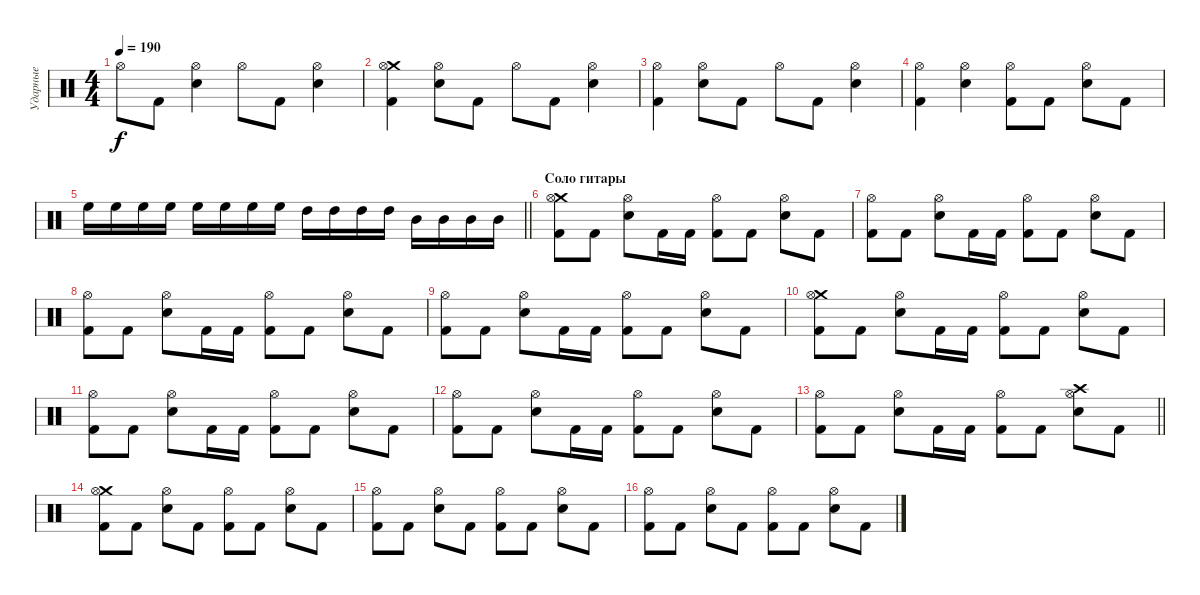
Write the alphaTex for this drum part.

\track ("Ударные" "Ударные") {instrument percussion}
\staff {score}
\articulation defaults
\ts (4 4)
\tempo 190
\clef neutral
\ks c "Hi-Hat (open)".8{dy f} "Kick (hit) 2".8
("Electric Snare (hit)" "Hi-Hat (open)").4 "Hi-Hat (open)".8 "Kick (hit) 2".8 ("Electric Snare (hit)" "Hi-Hat (open)").4 |
("Crash medium (hit)" "Kick (hit) 2" "Hi-Hat (open)").4 ("Electric Snare (hit)" "Hi-Hat (open)").8 "Kick (hit) 2".8 "Hi-Hat (open)".8 "Kick (hit) 2".8 ("Electric Snare (hit)" "Hi-Hat (open)").4 |
("Kick (hit) 2" "Hi-Hat (open)").4 ("Electric Snare (hit)" "Hi-Hat (open)").8 "Kick (hit) 2".8 "Hi-Hat (open)".8 "Kick (hit) 2".8 ("Electric Snare (hit)" "Hi-Hat (open)").4 |
("Kick (hit) 2" "Hi-Hat (open)").4 ("Electric Snare (hit)" "Hi-Hat (open)").4 ("Kick (hit) 2" "Hi-Hat (open)").8 "Kick (hit) 2".8 ("Electric Snare (hit)" "Hi-Hat (open)").8 "Kick (hit) 2".8 |
\barLineRight lightlight "High Floor Tom (hit)".16 "High Floor Tom (hit)".16 "High Floor Tom (hit)".16 "High Floor Tom (hit)".16 "High Floor Tom (hit)".16 "High Floor Tom (hit)".16 "High Floor Tom (hit)".16 "High Floor Tom (hit)".16 "High Tom (hit)".16 "High Tom (hit)".16 "High Tom (hit)".16 "High Tom (hit)".16 "Mid Tom (hit)".16 "Mid Tom (hit)".16 "Mid Tom (hit)".16 "Mid Tom (hit)".16
|
\section ("" "Соло гитары")
("Crash medium (hit)" "Kick (hit) 2" "Hi-Hat (open)").8 "Kick (hit) 2".8 ("Electric Snare (hit)" "Hi-Hat (open)").8 "Kick (hit) 2".16 "Kick (hit) 2".16 ("Kick (hit) 2" "Hi-Hat (open)").8 "Kick (hit) 2".8 ("Electric Snare (hit)" "Hi-Hat (open)").8 "Kick (hit) 2".8 |
("Kick (hit) 2" "Hi-Hat (open)").8 "Kick (hit) 2".8 ("Electric Snare (hit)" "Hi-Hat (open)").8 "Kick (hit) 2".16 "Kick (hit) 2".16 ("Kick (hit) 2" "Hi-Hat (open)").8 "Kick (hit) 2".8 ("Electric Snare (hit)" "Hi-Hat (open)").8 "Kick (hit) 2".8 |
("Kick (hit) 2" "Hi-Hat (open)").8 "Kick (hit) 2".8 ("Electric Snare (hit)" "Hi-Hat (open)").8 "Kick (hit) 2".16 "Kick (hit) 2".16 ("Kick (hit) 2" "Hi-Hat (open)").8 "Kick (hit) 2".8 ("Electric Snare (hit)" "Hi-Hat (open)").8 "Kick (hit) 2".8 |
("Kick (hit) 2" "Hi-Hat (open)").8 "Kick (hit) 2".8 ("Electric Snare (hit)" "Hi-Hat (open)").8 "Kick (hit) 2".16 "Kick (hit) 2".16 ("Kick (hit) 2" "Hi-Hat (open)").8 "Kick (hit) 2".8 ("Electric Snare (hit)" "Hi-Hat (open)").8 "Kick (hit) 2".8 |
("Crash medium (hit)" "Kick (hit) 2" "Hi-Hat (open)").8 "Kick (hit) 2".8 ("Electric Snare (hit)" "Hi-Hat (open)").8 "Kick (hit) 2".16 "Kick (hit) 2".16 ("Kick (hit) 2" "Hi-Hat (open)").8 "Kick (hit) 2".8 ("Electric Snare (hit)" "Hi-Hat (open)").8 "Kick (hit) 2".8 |
("Kick (hit) 2" "Hi-Hat (open)").8 "Kick (hit) 2".8 ("Electric Snare (hit)" "Hi-Hat (open)").8 "Kick (hit) 2".16 "Kick (hit) 2".16 ("Kick (hit) 2" "Hi-Hat (open)").8 "Kick (hit) 2".8 ("Electric Snare (hit)" "Hi-Hat (open)").8 "Kick (hit) 2".8 |
("Kick (hit) 2" "Hi-Hat (open)").8 "Kick (hit) 2".8 ("Electric Snare (hit)" "Hi-Hat (open)").8 "Kick (hit) 2".16 "Kick (hit) 2".16 ("Kick (hit) 2" "Hi-Hat (open)").8 "Kick (hit) 2".8 ("Electric Snare (hit)" "Hi-Hat (open)").8 "Kick (hit) 2".8 |
\barLineRight lightlight
("Kick (hit) 2" "Hi-Hat (open)").8 "Kick (hit) 2".8 ("Electric Snare (hit)" "Hi-Hat (open)").8 "Kick (hit) 2".16 "Kick (hit) 2".16 ("Kick (hit) 2" "Hi-Hat (open)").8 "Kick (hit) 2".8 ("Crash high (hit)" "Electric Snare (hit)" "Hi-Hat (open)").8 "Kick (hit) 2".8 |
("Crash medium (hit)" "Kick (hit) 2" "Hi-Hat (open)").8 "Kick (hit) 2".8 ("Electric Snare (hit)" "Hi-Hat (open)").8 "Kick (hit) 2".8 ("Kick (hit) 2" "Hi-Hat (open)").8 "Kick (hit) 2".8 ("Electric Snare (hit)" "Hi-Hat (open)").8 "Kick (hit) 2".8 |
("Kick (hit) 2" "Hi-Hat (open)").8 "Kick (hit) 2".8 ("Electric Snare (hit)" "Hi-Hat (open)").8 "Kick (hit) 2".8 ("Kick (hit) 2" "Hi-Hat (open)").8 "Kick (hit) 2".8 ("Electric Snare (hit)" "Hi-Hat (open)").8 "Kick (hit) 2".8 |
("Kick (hit) 2" "Hi-Hat (open)").8 "Kick (hit) 2".8 ("Electric Snare (hit)" "Hi-Hat (open)").8 "Kick (hit) 2".8 ("Kick (hit) 2" "Hi-Hat (open)").8 "Kick (hit) 2".8 ("Electric Snare (hit)" "Hi-Hat (open)").8 "Kick (hit) 2".8
